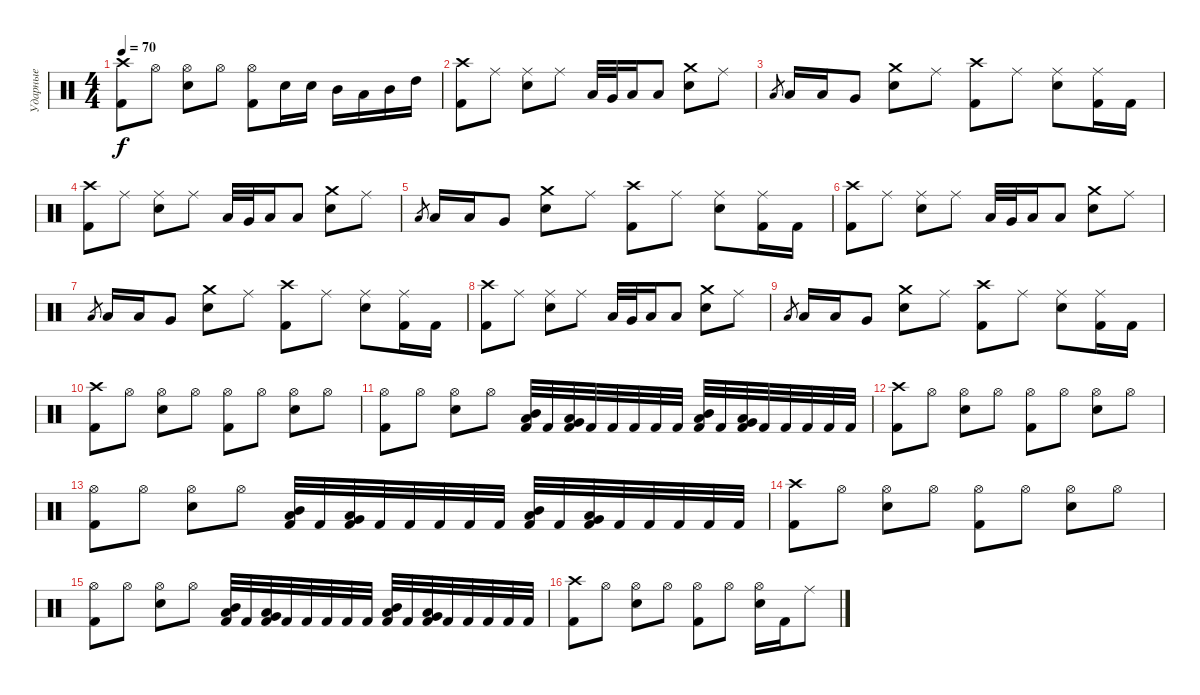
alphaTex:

\track ("Ударные" "Ударные") {instrument percussion}
\staff {score}
\articulation defaults
\ts (4 4)
\tempo 70
\clef neutral
\ks c
("Crash high (hit)" "Kick (hit) 2").8{dy f} "Hi-Hat (open)".8 ("Hi-Hat (open)" "Snare (hit) 2").8 "Hi-Hat (open)".8 ("Hi-Hat (open)" "Kick (hit) 2").8 "Snare (hit) 2".16 "Snare (hit) 2".16 "Mid Tom (hit)".16 "Low Tom (hit)".16 "Mid Tom (hit)".16 "High Tom (hit)".16 |
("Crash high (hit)" "Kick (hit) 2").8 "Ride (middle)".8 ("Ride (middle)" "Snare (hit) 2").8 "Ride (middle)".8 "Low Tom (hit)".32 "Very Low Tom (hit)".32 "Low Tom (hit)".16 "Low Tom (hit)".8 ("Crash medium (hit)" "Snare (hit) 2").8 "Ride (middle)".8 |
"Low Tom (hit)".8{gr} "Low Tom (hit)".16 "Low Tom (hit)".16 "Very Low Tom (hit)".8 ("Crash medium (hit)" "Snare (hit) 2").8 "Ride (middle)".8 ("Crash high (hit)" "Kick (hit) 2").8 "Ride (middle)".8 ("Ride (middle)" "Snare (hit) 2").8 ("Ride (middle)" "Kick (hit) 2").16 "Kick (hit) 2".16 |
("Crash high (hit)" "Kick (hit) 2").8 "Ride (middle)".8 ("Ride (middle)" "Snare (hit) 2").8 "Ride (middle)".8 "Low Tom (hit)".32 "Very Low Tom (hit)".32 "Low Tom (hit)".16 "Low Tom (hit)".8 ("Crash medium (hit)" "Snare (hit) 2").8 "Ride (middle)".8 |
"Low Tom (hit)".8{gr} "Low Tom (hit)".16 "Low Tom (hit)".16 "Very Low Tom (hit)".8 ("Crash medium (hit)" "Snare (hit) 2").8 "Ride (middle)".8 ("Crash high (hit)" "Kick (hit) 2").8 "Ride (middle)".8 ("Ride (middle)" "Snare (hit) 2").8 ("Ride (middle)" "Kick (hit) 2").16 "Kick (hit) 2".16 |
("Crash high (hit)" "Kick (hit) 2").8 "Ride (middle)".8 ("Ride (middle)" "Snare (hit) 2").8 "Ride (middle)".8 "Low Tom (hit)".32 "Very Low Tom (hit)".32 "Low Tom (hit)".16 "Low Tom (hit)".8 ("Crash medium (hit)" "Snare (hit) 2").8 "Ride (middle)".8 |
"Low Tom (hit)".8{gr} "Low Tom (hit)".16 "Low Tom (hit)".16 "Very Low Tom (hit)".8 ("Crash medium (hit)" "Snare (hit) 2").8 "Ride (middle)".8 ("Crash high (hit)" "Kick (hit) 2").8 "Ride (middle)".8 ("Ride (middle)" "Snare (hit) 2").8 ("Ride (middle)" "Kick (hit) 2").16 "Kick (hit) 2".16 |
("Crash high (hit)" "Kick (hit) 2").8 "Ride (middle)".8 ("Ride (middle)" "Snare (hit) 2").8 "Ride (middle)".8 "Low Tom (hit)".32 "Very Low Tom (hit)".32 "Low Tom (hit)".16 "Low Tom (hit)".8 ("Crash medium (hit)" "Snare (hit) 2").8 "Ride (middle)".8 |
"Low Tom (hit)".8{gr} "Low Tom (hit)".16 "Low Tom (hit)".16 "Very Low Tom (hit)".8 ("Crash medium (hit)" "Snare (hit) 2").8 "Ride (middle)".8 ("Crash high (hit)" "Kick (hit) 2").8 "Ride (middle)".8 ("Ride (middle)" "Snare (hit) 2").8 ("Ride (middle)" "Kick (hit) 2").16 "Kick (hit) 2".16 |
("Crash high (hit)" "Kick (hit) 2").8 "Hi-Hat (open)".8 ("Hi-Hat (open)" "Snare (hit) 2").8 "Hi-Hat (open)".8 ("Hi-Hat (open)" "Kick (hit) 2").8 "Hi-Hat (open)".8 ("Hi-Hat (open)" "Snare (hit) 2").8 "Hi-Hat (open)".8 |
("Hi-Hat (open)" "Kick (hit) 2").8 "Hi-Hat (open)".8 ("Hi-Hat (open)" "Snare (hit) 2").8 "Hi-Hat (open)".8 ("Mid Tom (hit)" "Low Tom (hit)" "Kick (hit) 2").32 "Kick (hit) 2".32 ("Low Tom (hit)" "Very Low Tom (hit)" "Kick (hit) 2").32 "Kick (hit) 2".32 "Kick (hit) 2".32 "Kick (hit) 2".32 "Kick (hit) 2".32 "Kick (hit) 2".32 ("Mid Tom (hit)" "Low Tom (hit)" "Kick (hit) 2").32 "Kick (hit) 2".32 ("Low Tom (hit)" "Very Low Tom (hit)" "Kick (hit) 2").32 "Kick (hit) 2".32 "Kick (hit) 2".32 "Kick (hit) 2".32 "Kick (hit) 2".32 "Kick (hit) 2".32 |
("Crash high (hit)" "Kick (hit) 2").8 "Hi-Hat (open)".8 ("Hi-Hat (open)" "Snare (hit) 2").8 "Hi-Hat (open)".8 ("Hi-Hat (open)" "Kick (hit) 2").8 "Hi-Hat (open)".8 ("Hi-Hat (open)" "Snare (hit) 2").8 "Hi-Hat (open)".8 |
("Hi-Hat (open)" "Kick (hit) 2").8 "Hi-Hat (open)".8 ("Hi-Hat (open)" "Snare (hit) 2").8 "Hi-Hat (open)".8 ("Mid Tom (hit)" "Low Tom (hit)" "Kick (hit) 2").32 "Kick (hit) 2".32 ("Low Tom (hit)" "Very Low Tom (hit)" "Kick (hit) 2").32 "Kick (hit) 2".32 "Kick (hit) 2".32 "Kick (hit) 2".32 "Kick (hit) 2".32 "Kick (hit) 2".32 ("Mid Tom (hit)" "Low Tom (hit)" "Kick (hit) 2").32 "Kick (hit) 2".32 ("Low Tom (hit)" "Very Low Tom (hit)" "Kick (hit) 2").32 "Kick (hit) 2".32 "Kick (hit) 2".32 "Kick (hit) 2".32 "Kick (hit) 2".32 "Kick (hit) 2".32 |
("Crash high (hit)" "Kick (hit) 2").8 "Hi-Hat (open)".8 ("Hi-Hat (open)" "Snare (hit) 2").8 "Hi-Hat (open)".8 ("Hi-Hat (open)" "Kick (hit) 2").8 "Hi-Hat (open)".8 ("Hi-Hat (open)" "Snare (hit) 2").8 "Hi-Hat (open)".8 |
("Hi-Hat (open)" "Kick (hit) 2").8 "Hi-Hat (open)".8 ("Hi-Hat (open)" "Snare (hit) 2").8 "Hi-Hat (open)".8 ("Mid Tom (hit)" "Low Tom (hit)" "Kick (hit) 2").32 "Kick (hit) 2".32 ("Low Tom (hit)" "Very Low Tom (hit)" "Kick (hit) 2").32 "Kick (hit) 2".32 "Kick (hit) 2".32 "Kick (hit) 2".32 "Kick (hit) 2".32 "Kick (hit) 2".32 ("Mid Tom (hit)" "Low Tom (hit)" "Kick (hit) 2").32 "Kick (hit) 2".32 ("Low Tom (hit)" "Very Low Tom (hit)" "Kick (hit) 2").32 "Kick (hit) 2".32 "Kick (hit) 2".32 "Kick (hit) 2".32 "Kick (hit) 2".32 "Kick (hit) 2".32 |
("Crash high (hit)" "Kick (hit) 2").8 "Hi-Hat (open)".8 ("Hi-Hat (open)" "Snare (hit) 2").8 "Hi-Hat (open)".8 ("Hi-Hat (open)" "Kick (hit) 2").8 "Hi-Hat (open)".8 ("Hi-Hat (open)" "Snare (hit) 2").16 "Kick (hit) 2".16 "Ride (middle)".8
